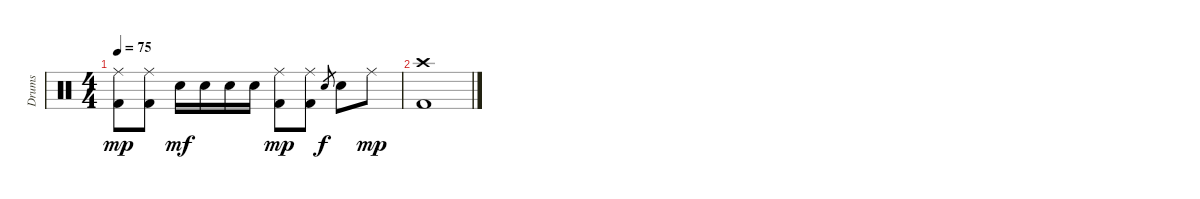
\track ("Drums" "Drums") {instrument percussion}
\staff {score}
\articulation defaults
\ts (4 4)
\tempo 75
\clef neutral
\ks c
("Ride (middle)" "Kick (hit) 2").8{dy mp} ("Ride (middle)" "Kick (hit) 2").8 "Electric Snare (hit)".16{dy mf} "Electric Snare (hit)".16 "Electric Snare (hit)".16 "Electric Snare (hit)".16 ("Ride (middle)" "Kick (hit) 2").8{dy mp} ("Ride (middle)" "Kick (hit) 2").8 "Electric Snare (hit)".8{gr dy f} "Electric Snare (hit)".8 "Ride (middle)".8{dy mp} |
("Crash high (hit)" "Kick (hit) 2").1
